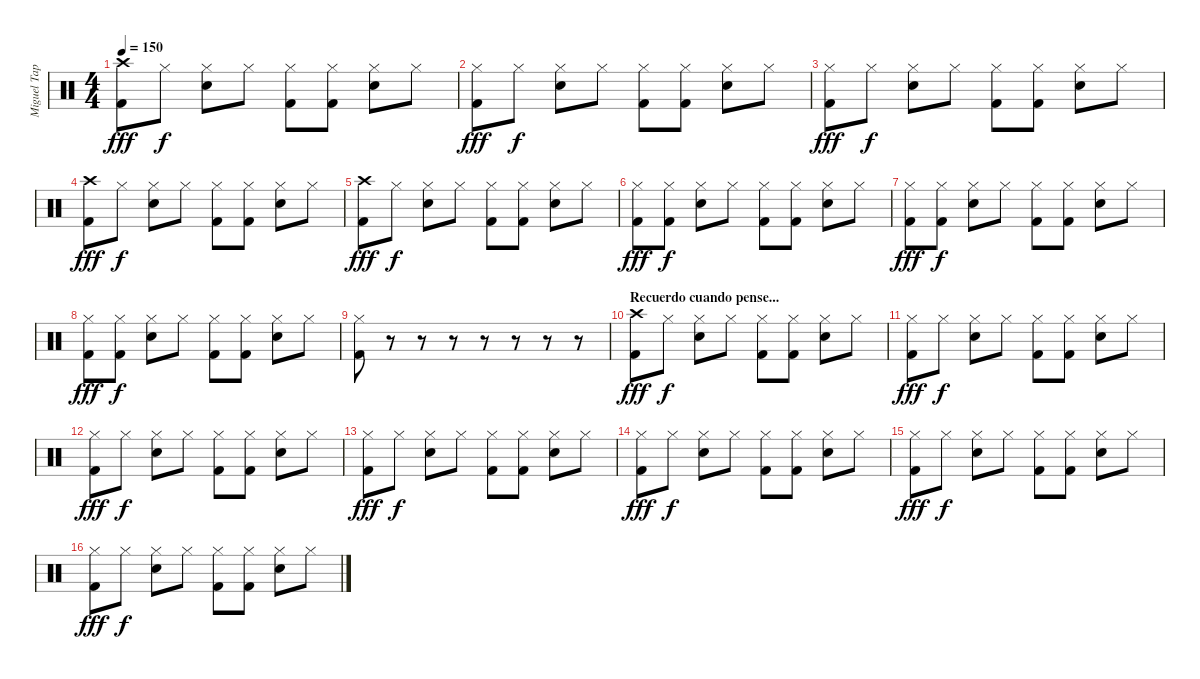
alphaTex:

\track ("Miguel Tapia" "Miguel Tap") {instrument percussion}
\staff {score}
\articulation defaults
\ts (4 4)
\tempo 150
\clef neutral
\ks c
("Crash high (hit)" "Kick (hit) 2").8{dy fff} "Hi-Hat (closed)".8{dy f} ("Hi-Hat (closed)" "Snare (hit) 2").8 "Hi-Hat (closed)".8 ("Hi-Hat (closed)" "Kick (hit) 2").8 ("Hi-Hat (closed)" "Kick (hit) 2").8 ("Hi-Hat (closed)" "Snare (hit) 2").8 "Hi-Hat (closed)".8 |
("Hi-Hat (closed)" "Kick (hit) 2").8{dy fff} "Hi-Hat (closed)".8{dy f} ("Hi-Hat (closed)" "Snare (hit) 2").8 "Hi-Hat (closed)".8 ("Hi-Hat (closed)" "Kick (hit) 2").8 ("Hi-Hat (closed)" "Kick (hit) 2").8 ("Hi-Hat (closed)" "Snare (hit) 2").8 "Hi-Hat (closed)".8 |
("Hi-Hat (closed)" "Kick (hit) 2").8{dy fff} "Hi-Hat (closed)".8{dy f} ("Hi-Hat (closed)" "Snare (hit) 2").8 "Hi-Hat (closed)".8 ("Hi-Hat (closed)" "Kick (hit) 2").8 ("Hi-Hat (closed)" "Kick (hit) 2").8 ("Hi-Hat (closed)" "Snare (hit) 2").8 "Hi-Hat (closed)".8 |
("Crash high (hit)" "Kick (hit) 2").8{dy fff} "Hi-Hat (closed)".8{dy f} ("Hi-Hat (closed)" "Snare (hit) 2").8 "Hi-Hat (closed)".8 ("Hi-Hat (closed)" "Kick (hit) 2").8 ("Hi-Hat (closed)" "Kick (hit) 2").8 ("Hi-Hat (closed)" "Snare (hit) 2").8 "Hi-Hat (closed)".8 |
("Crash high (hit)" "Kick (hit) 2").8{dy fff} "Hi-Hat (closed)".8{dy f} ("Hi-Hat (closed)" "Snare (hit) 2").8 "Hi-Hat (closed)".8 ("Hi-Hat (closed)" "Kick (hit) 2").8 ("Hi-Hat (closed)" "Kick (hit) 2").8 ("Hi-Hat (closed)" "Snare (hit) 2").8 "Hi-Hat (closed)".8 |
("Hi-Hat (closed)" "Kick (hit) 2").8{dy fff} ("Hi-Hat (closed)" "Kick (hit) 2").8{dy f} ("Hi-Hat (closed)" "Snare (hit) 2").8 "Hi-Hat (closed)".8 ("Hi-Hat (closed)" "Kick (hit) 2").8 ("Hi-Hat (closed)" "Kick (hit) 2").8 ("Hi-Hat (closed)" "Snare (hit) 2").8 "Hi-Hat (closed)".8 |
("Hi-Hat (closed)" "Kick (hit) 2").8{dy fff} ("Hi-Hat (closed)" "Kick (hit) 2").8{dy f} ("Hi-Hat (closed)" "Snare (hit) 2").8 "Hi-Hat (closed)".8 ("Hi-Hat (closed)" "Kick (hit) 2").8 ("Hi-Hat (closed)" "Kick (hit) 2").8 ("Hi-Hat (closed)" "Snare (hit) 2").8 "Hi-Hat (closed)".8 |
("Hi-Hat (closed)" "Kick (hit) 2").8{dy fff} ("Hi-Hat (closed)" "Kick (hit) 2").8{dy f} ("Hi-Hat (closed)" "Snare (hit) 2").8 "Hi-Hat (closed)".8 ("Hi-Hat (closed)" "Kick (hit) 2").8 ("Hi-Hat (closed)" "Kick (hit) 2").8 ("Hi-Hat (closed)" "Snare (hit) 2").8 "Hi-Hat (closed)".8 |
("Hi-Hat (closed)" "Kick (hit) 2").8 r.8 r.8 r.8 r.8 r.8 r.8 r.8 |
\section ("" "Recuerdo cuando pense...")
("Crash high (hit)" "Kick (hit) 2").8{dy fff} "Hi-Hat (closed)".8{dy f} ("Hi-Hat (closed)" "Snare (hit) 2").8 "Hi-Hat (closed)".8 ("Hi-Hat (closed)" "Kick (hit) 2").8 ("Hi-Hat (closed)" "Kick (hit) 2").8 ("Hi-Hat (closed)" "Snare (hit) 2").8 "Hi-Hat (closed)".8 |
("Hi-Hat (closed)" "Kick (hit) 2").8{dy fff} "Hi-Hat (closed)".8{dy f} ("Hi-Hat (closed)" "Snare (hit) 2").8 "Hi-Hat (closed)".8 ("Hi-Hat (closed)" "Kick (hit) 2").8 ("Hi-Hat (closed)" "Kick (hit) 2").8 ("Hi-Hat (closed)" "Snare (hit) 2").8 "Hi-Hat (closed)".8 |
("Hi-Hat (closed)" "Kick (hit) 2").8{dy fff} "Hi-Hat (closed)".8{dy f} ("Hi-Hat (closed)" "Snare (hit) 2").8 "Hi-Hat (closed)".8 ("Hi-Hat (closed)" "Kick (hit) 2").8 ("Hi-Hat (closed)" "Kick (hit) 2").8 ("Hi-Hat (closed)" "Snare (hit) 2").8 "Hi-Hat (closed)".8 |
("Hi-Hat (closed)" "Kick (hit) 2").8{dy fff} "Hi-Hat (closed)".8{dy f} ("Hi-Hat (closed)" "Snare (hit) 2").8 "Hi-Hat (closed)".8 ("Hi-Hat (closed)" "Kick (hit) 2").8 ("Hi-Hat (closed)" "Kick (hit) 2").8 ("Hi-Hat (closed)" "Snare (hit) 2").8 "Hi-Hat (closed)".8 |
("Hi-Hat (closed)" "Kick (hit) 2").8{dy fff} "Hi-Hat (closed)".8{dy f} ("Hi-Hat (closed)" "Snare (hit) 2").8 "Hi-Hat (closed)".8 ("Hi-Hat (closed)" "Kick (hit) 2").8 ("Hi-Hat (closed)" "Kick (hit) 2").8 ("Hi-Hat (closed)" "Snare (hit) 2").8 "Hi-Hat (closed)".8 |
("Hi-Hat (closed)" "Kick (hit) 2").8{dy fff} "Hi-Hat (closed)".8{dy f} ("Hi-Hat (closed)" "Snare (hit) 2").8 "Hi-Hat (closed)".8 ("Hi-Hat (closed)" "Kick (hit) 2").8 ("Hi-Hat (closed)" "Kick (hit) 2").8 ("Hi-Hat (closed)" "Snare (hit) 2").8 "Hi-Hat (closed)".8 |
("Hi-Hat (closed)" "Kick (hit) 2").8{dy fff} "Hi-Hat (closed)".8{dy f} ("Hi-Hat (closed)" "Snare (hit) 2").8 "Hi-Hat (closed)".8 ("Hi-Hat (closed)" "Kick (hit) 2").8 ("Hi-Hat (closed)" "Kick (hit) 2").8 ("Hi-Hat (closed)" "Snare (hit) 2").8 "Hi-Hat (closed)".8
